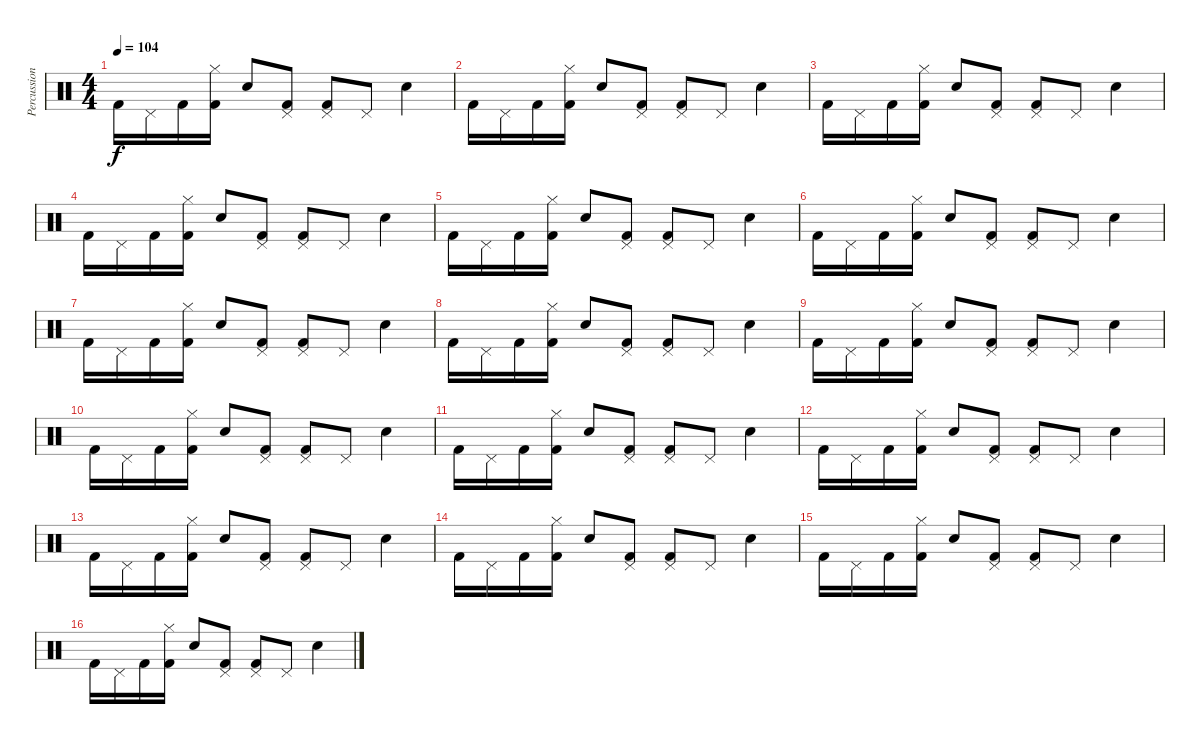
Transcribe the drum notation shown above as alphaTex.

\track ("Percussion" "Percussion") {instrument percussion}
\staff {score}
\articulation defaults
\ts (4 4)
\tempo 104
\clef neutral
\ks c "Kick (hit) 2".16{dy f} "Pedal Hi-Hat (hit)".16 "Kick (hit) 2".16
("Hi-Hat (closed)" "Kick (hit) 2").16 "Snare (hit) 2".8 ("Pedal Hi-Hat (hit)" "Kick (hit) 2").8 ("Pedal Hi-Hat (hit)" "Kick (hit) 2").8 "Pedal Hi-Hat (hit)".8 "Snare (hit) 2".4 |
"Kick (hit) 2".16 "Pedal Hi-Hat (hit)".16 "Kick (hit) 2".16 ("Hi-Hat (closed)" "Kick (hit) 2").16 "Snare (hit) 2".8 ("Pedal Hi-Hat (hit)" "Kick (hit) 2").8 ("Pedal Hi-Hat (hit)" "Kick (hit) 2").8 "Pedal Hi-Hat (hit)".8 "Snare (hit) 2".4 |
"Kick (hit) 2".16 "Pedal Hi-Hat (hit)".16 "Kick (hit) 2".16 ("Hi-Hat (closed)" "Kick (hit) 2").16 "Snare (hit) 2".8 ("Pedal Hi-Hat (hit)" "Kick (hit) 2").8 ("Pedal Hi-Hat (hit)" "Kick (hit) 2").8 "Pedal Hi-Hat (hit)".8 "Snare (hit) 2".4 |
"Kick (hit) 2".16 "Pedal Hi-Hat (hit)".16 "Kick (hit) 2".16 ("Hi-Hat (closed)" "Kick (hit) 2").16 "Snare (hit) 2".8 ("Pedal Hi-Hat (hit)" "Kick (hit) 2").8 ("Pedal Hi-Hat (hit)" "Kick (hit) 2").8 "Pedal Hi-Hat (hit)".8 "Snare (hit) 2".4 |
"Kick (hit) 2".16 "Pedal Hi-Hat (hit)".16 "Kick (hit) 2".16 ("Hi-Hat (closed)" "Kick (hit) 2").16 "Snare (hit) 2".8 ("Pedal Hi-Hat (hit)" "Kick (hit) 2").8 ("Pedal Hi-Hat (hit)" "Kick (hit) 2").8 "Pedal Hi-Hat (hit)".8 "Snare (hit) 2".4 |
"Kick (hit) 2".16 "Pedal Hi-Hat (hit)".16 "Kick (hit) 2".16 ("Hi-Hat (closed)" "Kick (hit) 2").16 "Snare (hit) 2".8 ("Pedal Hi-Hat (hit)" "Kick (hit) 2").8 ("Pedal Hi-Hat (hit)" "Kick (hit) 2").8 "Pedal Hi-Hat (hit)".8 "Snare (hit) 2".4 |
"Kick (hit) 2".16 "Pedal Hi-Hat (hit)".16 "Kick (hit) 2".16 ("Hi-Hat (closed)" "Kick (hit) 2").16 "Snare (hit) 2".8 ("Pedal Hi-Hat (hit)" "Kick (hit) 2").8 ("Pedal Hi-Hat (hit)" "Kick (hit) 2").8 "Pedal Hi-Hat (hit)".8 "Snare (hit) 2".4 |
"Kick (hit) 2".16 "Pedal Hi-Hat (hit)".16 "Kick (hit) 2".16 ("Hi-Hat (closed)" "Kick (hit) 2").16 "Snare (hit) 2".8 ("Pedal Hi-Hat (hit)" "Kick (hit) 2").8 ("Pedal Hi-Hat (hit)" "Kick (hit) 2").8 "Pedal Hi-Hat (hit)".8 "Snare (hit) 2".4 |
"Kick (hit) 2".16 "Pedal Hi-Hat (hit)".16 "Kick (hit) 2".16 ("Hi-Hat (closed)" "Kick (hit) 2").16 "Snare (hit) 2".8 ("Pedal Hi-Hat (hit)" "Kick (hit) 2").8 ("Pedal Hi-Hat (hit)" "Kick (hit) 2").8 "Pedal Hi-Hat (hit)".8 "Snare (hit) 2".4 |
"Kick (hit) 2".16 "Pedal Hi-Hat (hit)".16 "Kick (hit) 2".16 ("Hi-Hat (closed)" "Kick (hit) 2").16 "Snare (hit) 2".8 ("Pedal Hi-Hat (hit)" "Kick (hit) 2").8 ("Pedal Hi-Hat (hit)" "Kick (hit) 2").8 "Pedal Hi-Hat (hit)".8 "Snare (hit) 2".4 |
"Kick (hit) 2".16 "Pedal Hi-Hat (hit)".16 "Kick (hit) 2".16 ("Hi-Hat (closed)" "Kick (hit) 2").16 "Snare (hit) 2".8 ("Pedal Hi-Hat (hit)" "Kick (hit) 2").8 ("Pedal Hi-Hat (hit)" "Kick (hit) 2").8 "Pedal Hi-Hat (hit)".8 "Snare (hit) 2".4 |
"Kick (hit) 2".16 "Pedal Hi-Hat (hit)".16 "Kick (hit) 2".16 ("Hi-Hat (closed)" "Kick (hit) 2").16 "Snare (hit) 2".8 ("Pedal Hi-Hat (hit)" "Kick (hit) 2").8 ("Pedal Hi-Hat (hit)" "Kick (hit) 2").8 "Pedal Hi-Hat (hit)".8 "Snare (hit) 2".4 |
"Kick (hit) 2".16 "Pedal Hi-Hat (hit)".16 "Kick (hit) 2".16 ("Hi-Hat (closed)" "Kick (hit) 2").16 "Snare (hit) 2".8 ("Pedal Hi-Hat (hit)" "Kick (hit) 2").8 ("Pedal Hi-Hat (hit)" "Kick (hit) 2").8 "Pedal Hi-Hat (hit)".8 "Snare (hit) 2".4 |
"Kick (hit) 2".16 "Pedal Hi-Hat (hit)".16 "Kick (hit) 2".16 ("Hi-Hat (closed)" "Kick (hit) 2").16 "Snare (hit) 2".8 ("Pedal Hi-Hat (hit)" "Kick (hit) 2").8 ("Pedal Hi-Hat (hit)" "Kick (hit) 2").8 "Pedal Hi-Hat (hit)".8 "Snare (hit) 2".4 |
"Kick (hit) 2".16 "Pedal Hi-Hat (hit)".16 "Kick (hit) 2".16 ("Hi-Hat (closed)" "Kick (hit) 2").16 "Snare (hit) 2".8 ("Pedal Hi-Hat (hit)" "Kick (hit) 2").8 ("Pedal Hi-Hat (hit)" "Kick (hit) 2").8 "Pedal Hi-Hat (hit)".8 "Snare (hit) 2".4 |
"Kick (hit) 2".16 "Pedal Hi-Hat (hit)".16 "Kick (hit) 2".16 ("Hi-Hat (closed)" "Kick (hit) 2").16 "Snare (hit) 2".8 ("Pedal Hi-Hat (hit)" "Kick (hit) 2").8 ("Pedal Hi-Hat (hit)" "Kick (hit) 2").8 "Pedal Hi-Hat (hit)".8 "Snare (hit) 2".4
